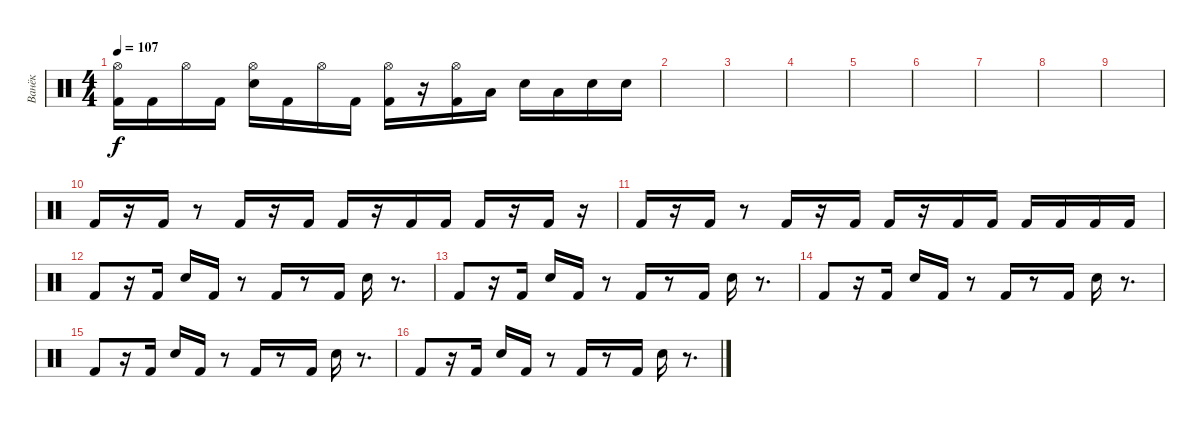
\track ("Ванёк" "Ванёк") {instrument percussion}
\staff {score}
\articulation defaults
\ts (4 4)
\tempo 107
\clef neutral
\ks c
("Hi-Hat (open)" "Kick (hit) 2").16{dy f} "Kick (hit) 2".16 "Hi-Hat (open)".16 "Kick (hit) 2".16 ("Hi-Hat (open)" "Electric Snare (hit)").16 "Kick (hit) 2".16 "Hi-Hat (open)".16 "Kick (hit) 2".16 ("Hi-Hat (open)" "Kick (hit) 2").16 r.16 ("Hi-Hat (open)" "Kick (hit) 2").16 "Low Tom (hit)".16 "Electric Snare (hit)".16 "Low Tom (hit)".16 "Electric Snare (hit)".16 "Electric Snare (hit)".16 |
|
|
|
|
|
|
|
|
"Kick (hit) 2".16 r.16 "Kick (hit) 2".16 r.8 "Kick (hit) 2".16 r.16 "Kick (hit) 2".16 "Kick (hit) 2".16 r.16 "Kick (hit) 2".16 "Kick (hit) 2".16 "Kick (hit) 2".16 r.16 "Kick (hit) 2".16 r.16 |
"Kick (hit) 2".16 r.16 "Kick (hit) 2".16 r.8 "Kick (hit) 2".16 r.16 "Kick (hit) 2".16 "Kick (hit) 2".16 r.16 "Kick (hit) 2".16 "Kick (hit) 2".16 "Kick (hit) 2".16 "Kick (hit) 2".16 "Kick (hit) 2".16 "Kick (hit) 2".16 |
"Kick (hit) 2".8 r.16 "Kick (hit) 2".16 "Snare (hit) 2".16 "Kick (hit) 2".16 r.8 "Kick (hit) 2".16 r.8 "Kick (hit) 2".16 "Snare (hit) 2".16 r.8{d} |
"Kick (hit) 2".8 r.16 "Kick (hit) 2".16 "Snare (hit) 2".16 "Kick (hit) 2".16 r.8 "Kick (hit) 2".16 r.8 "Kick (hit) 2".16 "Snare (hit) 2".16 r.8{d} |
"Kick (hit) 2".8 r.16 "Kick (hit) 2".16 "Snare (hit) 2".16 "Kick (hit) 2".16 r.8 "Kick (hit) 2".16 r.8 "Kick (hit) 2".16 "Snare (hit) 2".16 r.8{d} |
"Kick (hit) 2".8 r.16 "Kick (hit) 2".16 "Snare (hit) 2".16 "Kick (hit) 2".16 r.8 "Kick (hit) 2".16 r.8 "Kick (hit) 2".16 "Snare (hit) 2".16 r.8{d} |
"Kick (hit) 2".8 r.16 "Kick (hit) 2".16 "Snare (hit) 2".16 "Kick (hit) 2".16 r.8 "Kick (hit) 2".16 r.8 "Kick (hit) 2".16 "Snare (hit) 2".16 r.8{d}
